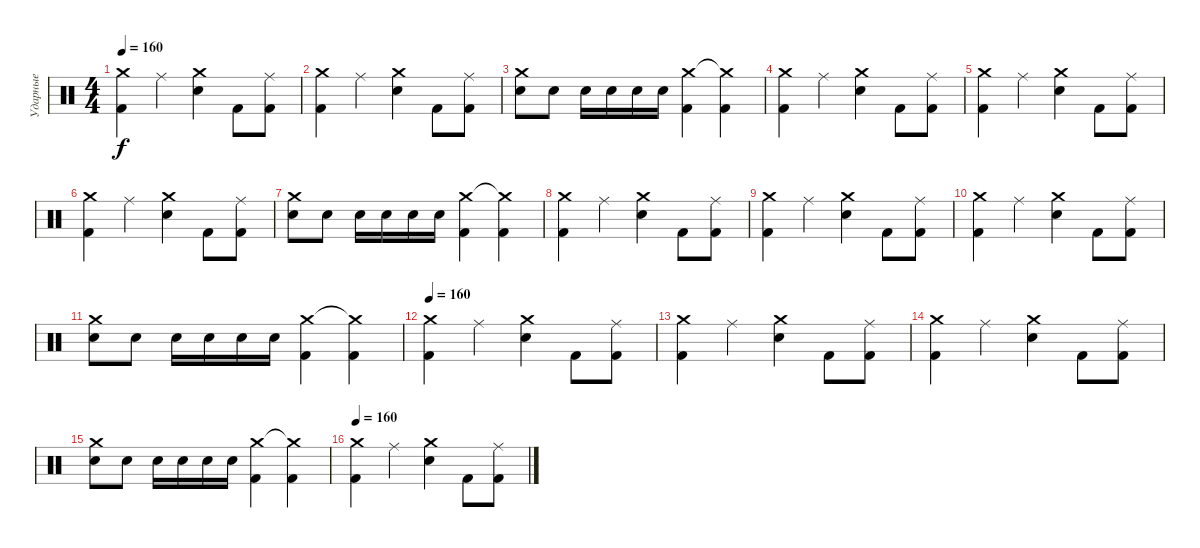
\track ("Ударные" "Ударные") {instrument percussion}
\staff {score}
\articulation defaults
\ts (4 4)
\tempo 160
\clef neutral
\ks c
("Crash medium (hit)" "Kick (hit) 2").4{dy f} "Ride (middle)".4 ("Crash medium (hit)" "Electric Snare (hit)").4 "Kick (hit) 2".8 ("Ride (middle)" "Kick (hit) 2").8 |
("Crash medium (hit)" "Kick (hit) 2").4 "Ride (middle)".4 ("Crash medium (hit)" "Electric Snare (hit)").4 "Kick (hit) 2".8 ("Ride (middle)" "Kick (hit) 2").8 |
("Crash medium (hit)" "Electric Snare (hit)").8 "Electric Snare (hit)".8 "Electric Snare (hit)".16 "Electric Snare (hit)".16 "Electric Snare (hit)".16 "Electric Snare (hit)".16 ("Crash medium (hit)" "Kick (hit) 2").4 ("Crash medium (hit)"{t} "Kick (hit) 2").4 |
("Crash medium (hit)" "Kick (hit) 2").4 "Ride (middle)".4 ("Crash medium (hit)" "Electric Snare (hit)").4 "Kick (hit) 2".8 ("Ride (middle)" "Kick (hit) 2").8 |
("Crash medium (hit)" "Kick (hit) 2").4 "Ride (middle)".4 ("Crash medium (hit)" "Electric Snare (hit)").4 "Kick (hit) 2".8 ("Ride (middle)" "Kick (hit) 2").8 |
("Crash medium (hit)" "Kick (hit) 2").4 "Ride (middle)".4 ("Crash medium (hit)" "Electric Snare (hit)").4 "Kick (hit) 2".8 ("Ride (middle)" "Kick (hit) 2").8 |
("Crash medium (hit)" "Electric Snare (hit)").8 "Electric Snare (hit)".8 "Electric Snare (hit)".16 "Electric Snare (hit)".16 "Electric Snare (hit)".16 "Electric Snare (hit)".16 ("Crash medium (hit)" "Kick (hit) 2").4 ("Crash medium (hit)"{t} "Kick (hit) 2").4 |
("Crash medium (hit)" "Kick (hit) 2").4 "Ride (middle)".4 ("Crash medium (hit)" "Electric Snare (hit)").4 "Kick (hit) 2".8 ("Ride (middle)" "Kick (hit) 2").8 |
("Crash medium (hit)" "Kick (hit) 2").4 "Ride (middle)".4 ("Crash medium (hit)" "Electric Snare (hit)").4 "Kick (hit) 2".8 ("Ride (middle)" "Kick (hit) 2").8 |
("Crash medium (hit)" "Kick (hit) 2").4 "Ride (middle)".4 ("Crash medium (hit)" "Electric Snare (hit)").4 "Kick (hit) 2".8 ("Ride (middle)" "Kick (hit) 2").8 |
("Crash medium (hit)" "Electric Snare (hit)").8 "Electric Snare (hit)".8 "Electric Snare (hit)".16 "Electric Snare (hit)".16 "Electric Snare (hit)".16 "Electric Snare (hit)".16 ("Crash medium (hit)" "Kick (hit) 2").4 ("Crash medium (hit)"{t} "Kick (hit) 2").4 |
\tempo 160
("Crash medium (hit)" "Kick (hit) 2").4 "Ride (middle)".4 ("Crash medium (hit)" "Electric Snare (hit)").4 "Kick (hit) 2".8 ("Ride (middle)" "Kick (hit) 2").8 |
("Crash medium (hit)" "Kick (hit) 2").4 "Ride (middle)".4 ("Crash medium (hit)" "Electric Snare (hit)").4 "Kick (hit) 2".8 ("Ride (middle)" "Kick (hit) 2").8 |
("Crash medium (hit)" "Kick (hit) 2").4 "Ride (middle)".4 ("Crash medium (hit)" "Electric Snare (hit)").4 "Kick (hit) 2".8 ("Ride (middle)" "Kick (hit) 2").8 |
("Crash medium (hit)" "Electric Snare (hit)").8 "Electric Snare (hit)".8 "Electric Snare (hit)".16 "Electric Snare (hit)".16 "Electric Snare (hit)".16 "Electric Snare (hit)".16 ("Crash medium (hit)" "Kick (hit) 2").4 ("Crash medium (hit)"{t} "Kick (hit) 2").4 |
\tempo 160
("Crash medium (hit)" "Kick (hit) 2").4 "Ride (middle)".4 ("Crash medium (hit)" "Electric Snare (hit)").4 "Kick (hit) 2".8 ("Ride (middle)" "Kick (hit) 2").8
